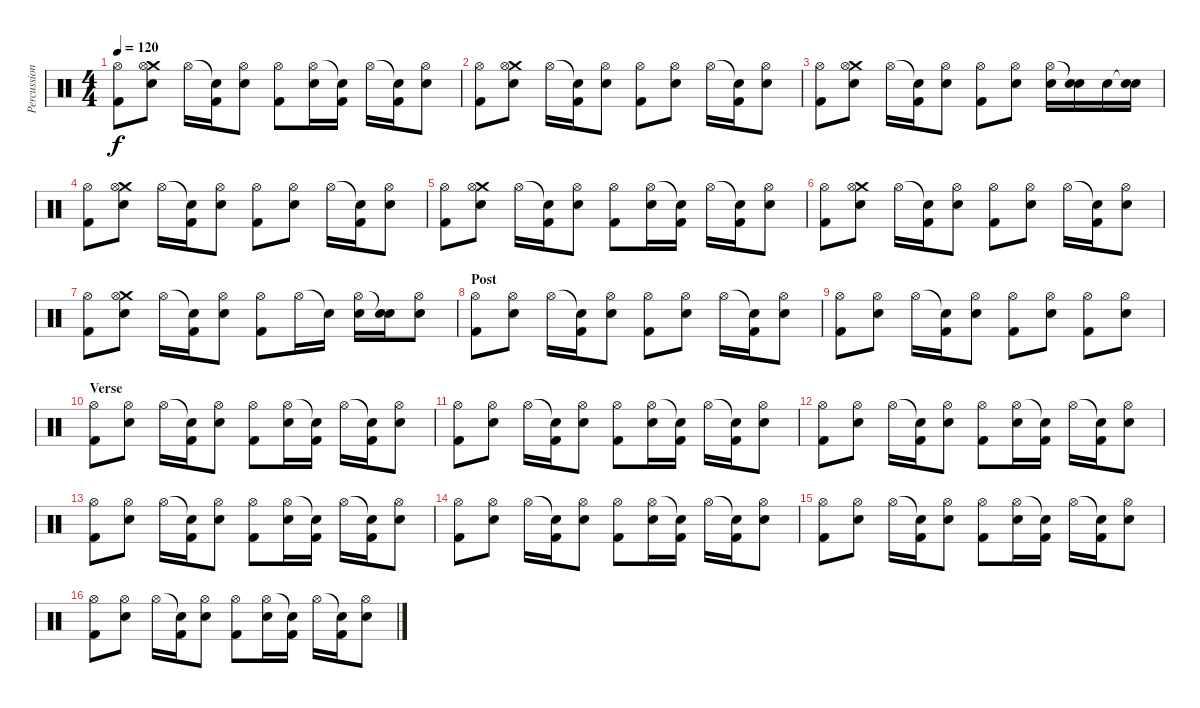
\track ("Percussion" "Percussion") {instrument percussion}
\staff {score}
\articulation defaults
\ts (4 4)
\tempo 120
\clef neutral
\ks c
("Hi-Hat (open)" "Kick (hit) 2").8{dy f} ("Crash medium (hit)" "Hi-Hat (open)" "Electric Snare (hit)").8 "Hi-Hat (open)".16 ("Snare (hit)"{t} "Kick (hit) 2").16 ("Hi-Hat (open)" "Electric Snare (hit)").8 ("Hi-Hat (open)" "Kick (hit) 2").8 ("Hi-Hat (open)" "Electric Snare (hit)").16 ("Snare (hit)"{t} "Kick (hit) 2").16 "Hi-Hat (open)".16 ("Snare (hit)"{t} "Kick (hit) 2").16 ("Hi-Hat (open)" "Electric Snare (hit)").8 |
("Hi-Hat (open)" "Kick (hit) 2").8 ("Crash medium (hit)" "Hi-Hat (open)" "Electric Snare (hit)").8 "Hi-Hat (open)".16 ("Snare (hit)"{t} "Kick (hit) 2").16 ("Hi-Hat (open)" "Electric Snare (hit)").8 ("Hi-Hat (open)" "Kick (hit) 2").8 ("Hi-Hat (open)" "Electric Snare (hit)").8 "Hi-Hat (open)".16 ("Snare (hit)"{t} "Kick (hit) 2").16 ("Hi-Hat (open)" "Electric Snare (hit)").8 |
("Hi-Hat (open)" "Kick (hit) 2").8 ("Crash medium (hit)" "Hi-Hat (open)" "Electric Snare (hit)").8 "Hi-Hat (open)".16 ("Snare (hit)"{t} "Kick (hit) 2").16 ("Hi-Hat (open)" "Electric Snare (hit)").8 ("Hi-Hat (open)" "Kick (hit) 2").8 ("Hi-Hat (open)" "Electric Snare (hit)").8 ("Hi-Hat (open)" "Electric Snare (hit)").16 ("Snare (hit)"{t} "Electric Snare (hit)").16 "Electric Snare (hit)".16 ("Snare (hit)"{t} "Electric Snare (hit)").16 |
("Hi-Hat (open)" "Kick (hit) 2").8 ("Crash medium (hit)" "Hi-Hat (open)" "Electric Snare (hit)").8 "Hi-Hat (open)".16 ("Snare (hit)"{t} "Kick (hit) 2").16 ("Hi-Hat (open)" "Electric Snare (hit)").8 ("Hi-Hat (open)" "Kick (hit) 2").8 ("Hi-Hat (open)" "Electric Snare (hit)").8 "Hi-Hat (open)".16 ("Snare (hit)"{t} "Kick (hit) 2").16 ("Hi-Hat (open)" "Electric Snare (hit)").8 |
("Hi-Hat (open)" "Kick (hit) 2").8 ("Crash medium (hit)" "Hi-Hat (open)" "Electric Snare (hit)").8 "Hi-Hat (open)".16 ("Snare (hit)"{t} "Kick (hit) 2").16 ("Hi-Hat (open)" "Electric Snare (hit)").8 ("Hi-Hat (open)" "Kick (hit) 2").8 ("Hi-Hat (open)" "Electric Snare (hit)").16 ("Snare (hit)"{t} "Kick (hit) 2").16 "Hi-Hat (open)".16 ("Snare (hit)"{t} "Kick (hit) 2").16 ("Hi-Hat (open)" "Electric Snare (hit)").8 |
("Hi-Hat (open)" "Kick (hit) 2").8 ("Crash medium (hit)" "Hi-Hat (open)" "Electric Snare (hit)").8 "Hi-Hat (open)".16 ("Snare (hit)"{t} "Kick (hit) 2").16 ("Hi-Hat (open)" "Electric Snare (hit)").8 ("Hi-Hat (open)" "Kick (hit) 2").8 ("Hi-Hat (open)" "Electric Snare (hit)").8 "Hi-Hat (open)".16 ("Snare (hit)"{t} "Kick (hit) 2").16 ("Hi-Hat (open)" "Electric Snare (hit)").8 |
("Hi-Hat (open)" "Kick (hit) 2").8 ("Crash medium (hit)" "Hi-Hat (open)" "Electric Snare (hit)").8 "Hi-Hat (open)".16 ("Snare (hit)"{t} "Kick (hit) 2").16 ("Hi-Hat (open)" "Electric Snare (hit)").8 ("Hi-Hat (open)" "Kick (hit) 2").8 "Hi-Hat (open)".16 "Snare (hit)"{t}.16 ("Hi-Hat (open)" "Electric Snare (hit)").16 ("Snare (hit)"{t} "Electric Snare (hit)").16 ("Hi-Hat (open)" "Electric Snare (hit)").8 |
\section ("" "Post")
("Hi-Hat (open)" "Kick (hit) 2").8 ("Hi-Hat (open)" "Electric Snare (hit)").8 "Hi-Hat (open)".16 ("Snare (hit)"{t} "Kick (hit) 2").16 ("Hi-Hat (open)" "Electric Snare (hit)").8 ("Hi-Hat (open)" "Kick (hit) 2").8 ("Hi-Hat (open)" "Electric Snare (hit)").8 "Hi-Hat (open)".16 ("Snare (hit)"{t} "Kick (hit) 2").16 ("Hi-Hat (open)" "Electric Snare (hit)").8 |
("Hi-Hat (open)" "Kick (hit) 2").8 ("Hi-Hat (open)" "Electric Snare (hit)").8 "Hi-Hat (open)".16 ("Snare (hit)"{t} "Kick (hit) 2").16 ("Hi-Hat (open)" "Electric Snare (hit)").8 ("Hi-Hat (open)" "Kick (hit) 2").8 ("Hi-Hat (open)" "Electric Snare (hit)").8 ("Hi-Hat (open)" "Kick (hit) 2").8 ("Hi-Hat (open)" "Electric Snare (hit)").8 |
\section ("" "Verse")
("Hi-Hat (open)" "Kick (hit) 2").8 ("Hi-Hat (open)" "Electric Snare (hit)").8 "Hi-Hat (open)".16 ("Snare (hit)"{t} "Kick (hit) 2").16 ("Hi-Hat (open)" "Electric Snare (hit)").8 ("Hi-Hat (open)" "Kick (hit) 2").8 ("Hi-Hat (open)" "Electric Snare (hit)").16 ("Snare (hit)"{t} "Kick (hit) 2").16 "Hi-Hat (open)".16 ("Snare (hit)"{t} "Kick (hit) 2").16 ("Hi-Hat (open)" "Electric Snare (hit)").8 |
("Hi-Hat (open)" "Kick (hit) 2").8 ("Hi-Hat (open)" "Electric Snare (hit)").8 "Hi-Hat (open)".16 ("Snare (hit)"{t} "Kick (hit) 2").16 ("Hi-Hat (open)" "Electric Snare (hit)").8 ("Hi-Hat (open)" "Kick (hit) 2").8 ("Hi-Hat (open)" "Electric Snare (hit)").16 ("Snare (hit)"{t} "Kick (hit) 2").16 "Hi-Hat (open)".16 ("Snare (hit)"{t} "Kick (hit) 2").16 ("Hi-Hat (open)" "Electric Snare (hit)").8 |
("Hi-Hat (open)" "Kick (hit) 2").8 ("Hi-Hat (open)" "Electric Snare (hit)").8 "Hi-Hat (open)".16 ("Snare (hit)"{t} "Kick (hit) 2").16 ("Hi-Hat (open)" "Electric Snare (hit)").8 ("Hi-Hat (open)" "Kick (hit) 2").8 ("Hi-Hat (open)" "Electric Snare (hit)").16 ("Snare (hit)"{t} "Kick (hit) 2").16 "Hi-Hat (open)".16 ("Snare (hit)"{t} "Kick (hit) 2").16 ("Hi-Hat (open)" "Electric Snare (hit)").8 |
("Hi-Hat (open)" "Kick (hit) 2").8 ("Hi-Hat (open)" "Electric Snare (hit)").8 "Hi-Hat (open)".16 ("Snare (hit)"{t} "Kick (hit) 2").16 ("Hi-Hat (open)" "Electric Snare (hit)").8 ("Hi-Hat (open)" "Kick (hit) 2").8 ("Hi-Hat (open)" "Electric Snare (hit)").16 ("Snare (hit)"{t} "Kick (hit) 2").16 "Hi-Hat (open)".16 ("Snare (hit)"{t} "Kick (hit) 2").16 ("Hi-Hat (open)" "Electric Snare (hit)").8 |
("Hi-Hat (open)" "Kick (hit) 2").8 ("Hi-Hat (open)" "Electric Snare (hit)").8 "Hi-Hat (open)".16 ("Snare (hit)"{t} "Kick (hit) 2").16 ("Hi-Hat (open)" "Electric Snare (hit)").8 ("Hi-Hat (open)" "Kick (hit) 2").8 ("Hi-Hat (open)" "Electric Snare (hit)").16 ("Snare (hit)"{t} "Kick (hit) 2").16 "Hi-Hat (open)".16 ("Snare (hit)"{t} "Kick (hit) 2").16 ("Hi-Hat (open)" "Electric Snare (hit)").8 |
("Hi-Hat (open)" "Kick (hit) 2").8 ("Hi-Hat (open)" "Electric Snare (hit)").8 "Hi-Hat (open)".16 ("Snare (hit)"{t} "Kick (hit) 2").16 ("Hi-Hat (open)" "Electric Snare (hit)").8 ("Hi-Hat (open)" "Kick (hit) 2").8 ("Hi-Hat (open)" "Electric Snare (hit)").16 ("Snare (hit)"{t} "Kick (hit) 2").16 "Hi-Hat (open)".16 ("Snare (hit)"{t} "Kick (hit) 2").16 ("Hi-Hat (open)" "Electric Snare (hit)").8 |
("Hi-Hat (open)" "Kick (hit) 2").8 ("Hi-Hat (open)" "Electric Snare (hit)").8 "Hi-Hat (open)".16 ("Snare (hit)"{t} "Kick (hit) 2").16 ("Hi-Hat (open)" "Electric Snare (hit)").8 ("Hi-Hat (open)" "Kick (hit) 2").8 ("Hi-Hat (open)" "Electric Snare (hit)").16 ("Snare (hit)"{t} "Kick (hit) 2").16 "Hi-Hat (open)".16 ("Snare (hit)"{t} "Kick (hit) 2").16 ("Hi-Hat (open)" "Electric Snare (hit)").8
